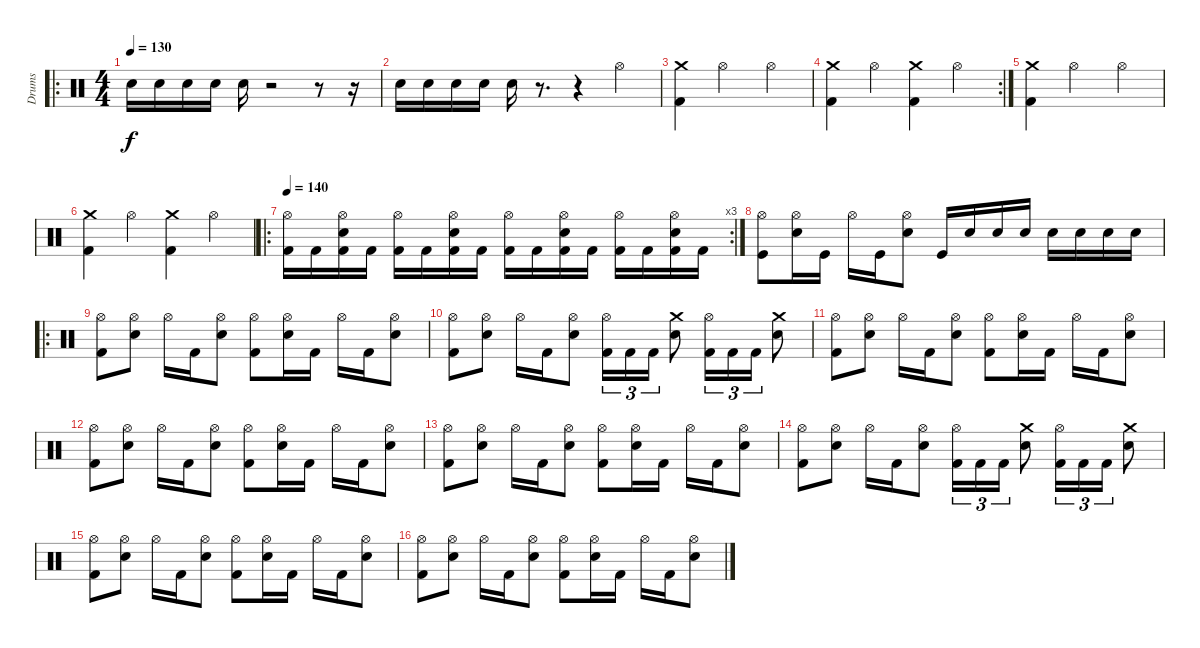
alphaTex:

\track ("Drums" "Drums") {instrument percussion}
\staff {score}
\articulation defaults
\ro
\ts (4 4)
\tempo 130
\clef neutral
\ks c "Electric Snare (hit)".16{dy f} "Electric Snare (hit)".16 "Electric Snare (hit)".16 "Electric Snare (hit)".16 "Electric Snare (hit)".16
r.2 r.8 r.16 |
"Electric Snare (hit)".16 "Electric Snare (hit)".16 "Electric Snare (hit)".16 "Electric Snare (hit)".16 "Electric Snare (hit)".16 r.8{d} r.4 "Hi-Hat (open)".4 |
("Crash medium (hit)" "Kick (hit) 2").4 "Hi-Hat (open)".2 "Hi-Hat (open)".4 |
\rc 2
("Crash medium (hit)" "Kick (hit) 2").4 "Hi-Hat (open)".4 ("Crash medium (hit)" "Kick (hit) 2").4 "Hi-Hat (open)".4 |
("Crash medium (hit)" "Kick (hit) 2").4 "Hi-Hat (open)".2 "Hi-Hat (open)".4 |
("Crash medium (hit)" "Kick (hit) 2").4 "Hi-Hat (open)".4 ("Crash medium (hit)" "Kick (hit) 2").4 "Hi-Hat (open)".4 |
\ro
\rc 3
\tempo 140
("Hi-Hat (open)" "Kick (hit) 2").16 "Kick (hit) 2".16 ("Electric Snare (hit)" "Hi-Hat (open)" "Kick (hit) 2").16 "Kick (hit) 2".16 ("Hi-Hat (open)" "Kick (hit) 2").16 "Kick (hit) 2".16 ("Electric Snare (hit)" "Hi-Hat (open)" "Kick (hit) 2").16 "Kick (hit) 2".16 ("Hi-Hat (open)" "Kick (hit) 2").16 "Kick (hit) 2".16 ("Electric Snare (hit)" "Hi-Hat (open)" "Kick (hit) 2").16 "Kick (hit) 2".16 ("Hi-Hat (open)" "Kick (hit) 2").16 "Kick (hit) 2".16 ("Electric Snare (hit)" "Hi-Hat (open)" "Kick (hit) 2").16 "Kick (hit) 2".16 |
("Hi-Hat (open)" "Kick (hit)").8 ("Electric Snare (hit)" "Hi-Hat (open)").16 "Kick (hit)".16 "Hi-Hat (open)".16 "Kick (hit)".16 ("Electric Snare (hit)" "Hi-Hat (open)").8 "Kick (hit)".16 "Electric Snare (hit)".16 "Electric Snare (hit)".16 "Electric Snare (hit)".16 "Electric Snare (hit)".16 "Electric Snare (hit)".16 "Electric Snare (hit)".16 "Electric Snare (hit)".16 |
\ro
("Hi-Hat (open)" "Kick (hit) 2").8 ("Electric Snare (hit)" "Hi-Hat (open)").8 "Hi-Hat (open)".16 "Kick (hit) 2".16 ("Electric Snare (hit)" "Hi-Hat (open)").8 ("Hi-Hat (open)" "Kick (hit) 2").8 ("Electric Snare (hit)" "Hi-Hat (open)").16 "Kick (hit) 2".16 "Hi-Hat (open)".16 "Kick (hit) 2".16 ("Electric Snare (hit)" "Hi-Hat (open)").8 |
("Hi-Hat (open)" "Kick (hit) 2").8 ("Electric Snare (hit)" "Hi-Hat (open)").8 "Hi-Hat (open)".16 "Kick (hit) 2".16 ("Electric Snare (hit)" "Hi-Hat (open)").8 ("Hi-Hat (open)" "Kick (hit) 2").16{tu (3 2)} "Kick (hit) 2".16{tu (3 2)} "Kick (hit) 2".16{tu (3 2)} ("Crash medium (hit)" "Electric Snare (hit)").8 ("Hi-Hat (open)" "Kick (hit) 2").16{tu (3 2)} "Kick (hit) 2".16{tu (3 2)} "Kick (hit) 2".16{tu (3 2)} ("Crash medium (hit)" "Electric Snare (hit)").8 |
("Hi-Hat (open)" "Kick (hit) 2").8 ("Electric Snare (hit)" "Hi-Hat (open)").8 "Hi-Hat (open)".16 "Kick (hit) 2".16 ("Electric Snare (hit)" "Hi-Hat (open)").8 ("Hi-Hat (open)" "Kick (hit) 2").8 ("Electric Snare (hit)" "Hi-Hat (open)").16 "Kick (hit) 2".16 "Hi-Hat (open)".16 "Kick (hit) 2".16 ("Electric Snare (hit)" "Hi-Hat (open)").8 |
("Hi-Hat (open)" "Kick (hit) 2").8 ("Electric Snare (hit)" "Hi-Hat (open)").8 "Hi-Hat (open)".16 "Kick (hit) 2".16 ("Electric Snare (hit)" "Hi-Hat (open)").8 ("Hi-Hat (open)" "Kick (hit) 2").8 ("Electric Snare (hit)" "Hi-Hat (open)").16 "Kick (hit) 2".16 "Hi-Hat (open)".16 "Kick (hit) 2".16 ("Electric Snare (hit)" "Hi-Hat (open)").8 |
("Hi-Hat (open)" "Kick (hit) 2").8 ("Electric Snare (hit)" "Hi-Hat (open)").8 "Hi-Hat (open)".16 "Kick (hit) 2".16 ("Electric Snare (hit)" "Hi-Hat (open)").8 ("Hi-Hat (open)" "Kick (hit) 2").8 ("Electric Snare (hit)" "Hi-Hat (open)").16 "Kick (hit) 2".16 "Hi-Hat (open)".16 "Kick (hit) 2".16 ("Electric Snare (hit)" "Hi-Hat (open)").8 |
("Hi-Hat (open)" "Kick (hit) 2").8 ("Electric Snare (hit)" "Hi-Hat (open)").8 "Hi-Hat (open)".16 "Kick (hit) 2".16 ("Electric Snare (hit)" "Hi-Hat (open)").8 ("Hi-Hat (open)" "Kick (hit) 2").16{tu (3 2)} "Kick (hit) 2".16{tu (3 2)} "Kick (hit) 2".16{tu (3 2)} ("Crash medium (hit)" "Electric Snare (hit)").8 ("Hi-Hat (open)" "Kick (hit) 2").16{tu (3 2)} "Kick (hit) 2".16{tu (3 2)} "Kick (hit) 2".16{tu (3 2)} ("Crash medium (hit)" "Electric Snare (hit)").8 |
("Hi-Hat (open)" "Kick (hit) 2").8 ("Electric Snare (hit)" "Hi-Hat (open)").8 "Hi-Hat (open)".16 "Kick (hit) 2".16 ("Electric Snare (hit)" "Hi-Hat (open)").8 ("Hi-Hat (open)" "Kick (hit) 2").8 ("Electric Snare (hit)" "Hi-Hat (open)").16 "Kick (hit) 2".16 "Hi-Hat (open)".16 "Kick (hit) 2".16 ("Electric Snare (hit)" "Hi-Hat (open)").8 |
("Hi-Hat (open)" "Kick (hit) 2").8 ("Electric Snare (hit)" "Hi-Hat (open)").8 "Hi-Hat (open)".16 "Kick (hit) 2".16 ("Electric Snare (hit)" "Hi-Hat (open)").8 ("Hi-Hat (open)" "Kick (hit) 2").8 ("Electric Snare (hit)" "Hi-Hat (open)").16 "Kick (hit) 2".16 "Hi-Hat (open)".16 "Kick (hit) 2".16 ("Electric Snare (hit)" "Hi-Hat (open)").8
